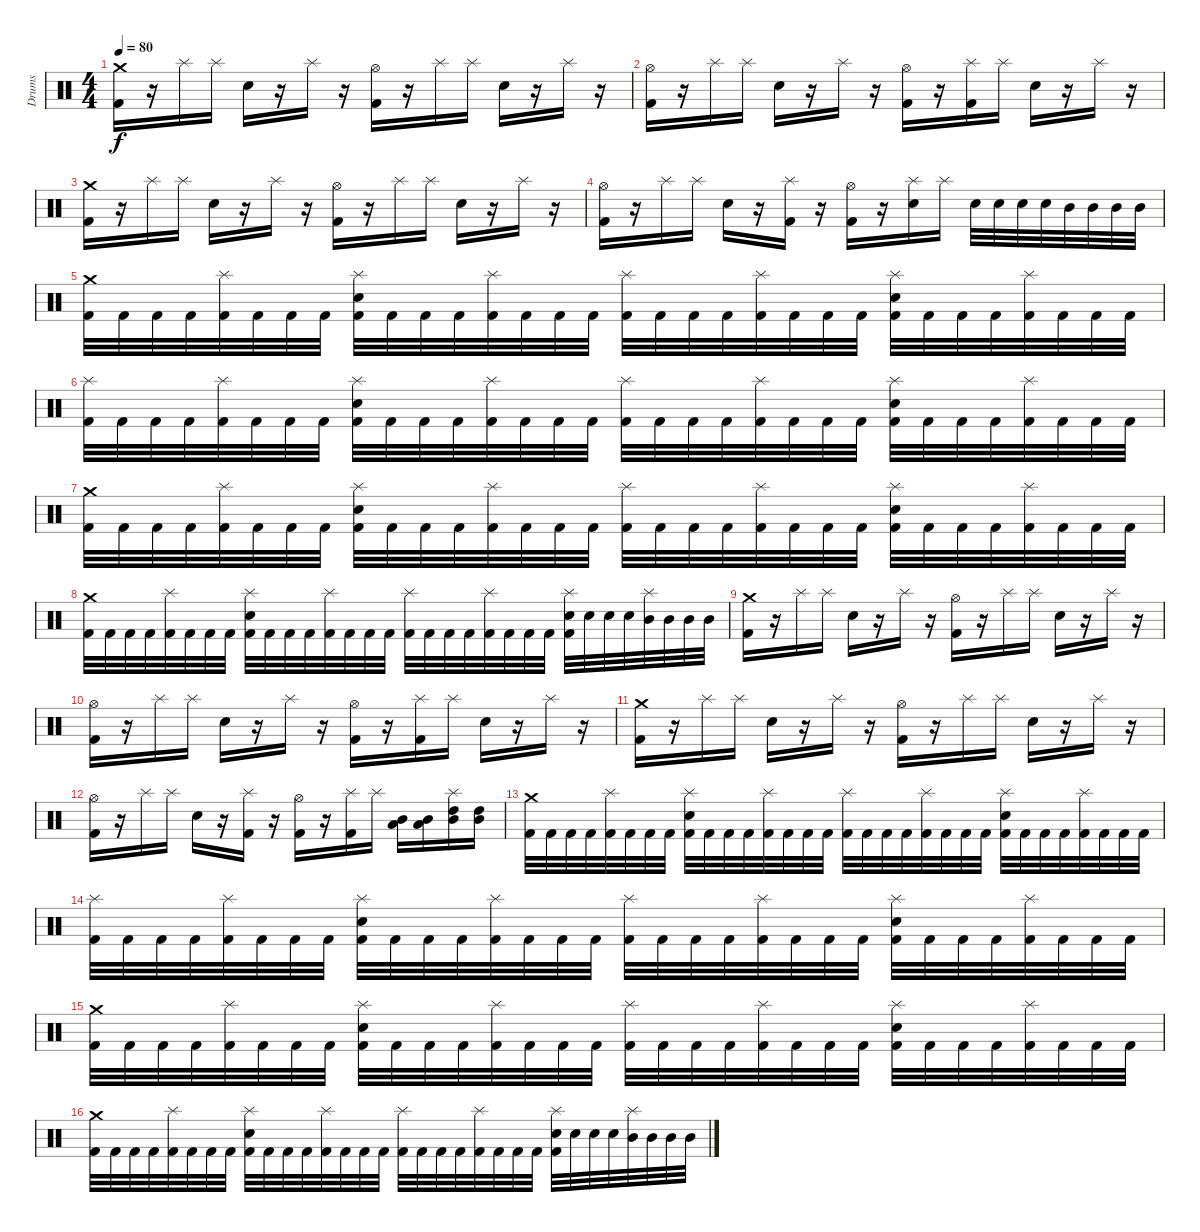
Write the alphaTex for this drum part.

\track ("Drums" "Drums") {instrument percussion}
\staff {score}
\articulation defaults
\ts (4 4)
\tempo 80
\clef neutral
\ks c
("Crash medium (hit)" "Kick (hit) 2").16{dy f} r.16 "Splash (hit)".16 "Splash (hit)".16 "Snare (hit) 2".16 r.16 "Splash (hit)".16 r.16 ("Hi-Hat (open)" "Kick (hit) 2").16 r.16 "Splash (hit)".16 "Splash (hit)".16 "Snare (hit) 2".16 r.16 "Splash (hit)".16 r.16 |
("Hi-Hat (open)" "Kick (hit) 2").16 r.16 "Splash (hit)".16 "Splash (hit)".16 "Snare (hit) 2".16 r.16 "Splash (hit)".16 r.16 ("Hi-Hat (open)" "Kick (hit) 2").16 r.16 ("Splash (hit)" "Kick (hit) 2").16 "Splash (hit)".16 "Snare (hit) 2".16 r.16 "Splash (hit)".16 r.16 |
("Crash medium (hit)" "Kick (hit) 2").16 r.16 "Splash (hit)".16 "Splash (hit)".16 "Snare (hit) 2".16 r.16 "Splash (hit)".16 r.16 ("Hi-Hat (open)" "Kick (hit) 2").16 r.16 "Splash (hit)".16 "Splash (hit)".16 "Snare (hit) 2".16 r.16 "Splash (hit)".16 r.16 |
("Hi-Hat (open)" "Kick (hit) 2").16 r.16 "Splash (hit)".16 "Splash (hit)".16 "Snare (hit) 2".16 r.16 ("Splash (hit)" "Kick (hit) 2").16 r.16 ("Hi-Hat (open)" "Kick (hit) 2").16 r.16 ("Splash (hit)" "Snare (hit) 2").16 "Splash (hit)".16 "Electric Snare (hit)".32 "Electric Snare (hit)".32 "Electric Snare (hit)".32 "Electric Snare (hit)".32 "Mid Tom (hit)".32 "Mid Tom (hit)".32 "Mid Tom (hit)".32 "Mid Tom (hit)".32 |
("Kick (hit) 2" "Crash medium (hit)").32 "Kick (hit) 2".32 "Kick (hit) 2".32 "Kick (hit) 2".32 ("Kick (hit) 2" "Splash (hit)").32 "Kick (hit) 2".32 "Kick (hit) 2".32 "Kick (hit) 2".32 ("Splash (hit)" "Kick (hit) 2" "Electric Snare (hit)").32 "Kick (hit) 2".32 "Kick (hit) 2".32 "Kick (hit) 2".32 ("Kick (hit) 2" "Splash (hit)").32 "Kick (hit) 2".32 "Kick (hit) 2".32 "Kick (hit) 2".32 ("Splash (hit)" "Kick (hit) 2").32 "Kick (hit) 2".32 "Kick (hit) 2".32 "Kick (hit) 2".32 ("Kick (hit) 2" "Splash (hit)").32 "Kick (hit) 2".32 "Kick (hit) 2".32 "Kick (hit) 2".32 ("Splash (hit)" "Kick (hit) 2" "Electric Snare (hit)").32 "Kick (hit) 2".32 "Kick (hit) 2".32 "Kick (hit) 2".32 ("Kick (hit) 2" "Splash (hit)").32 "Kick (hit) 2".32 "Kick (hit) 2".32 "Kick (hit) 2".32 |
("Kick (hit) 2" "Splash (hit)").32 "Kick (hit) 2".32 "Kick (hit) 2".32 "Kick (hit) 2".32 ("Kick (hit) 2" "Splash (hit)").32 "Kick (hit) 2".32 "Kick (hit) 2".32 "Kick (hit) 2".32 ("Splash (hit)" "Kick (hit) 2" "Electric Snare (hit)").32 "Kick (hit) 2".32 "Kick (hit) 2".32 "Kick (hit) 2".32 ("Kick (hit) 2" "Splash (hit)").32 "Kick (hit) 2".32 "Kick (hit) 2".32 "Kick (hit) 2".32 ("Splash (hit)" "Kick (hit) 2").32 "Kick (hit) 2".32 "Kick (hit) 2".32 "Kick (hit) 2".32 ("Kick (hit) 2" "Splash (hit)").32 "Kick (hit) 2".32 "Kick (hit) 2".32 "Kick (hit) 2".32 ("Splash (hit)" "Kick (hit) 2" "Electric Snare (hit)").32 "Kick (hit) 2".32 "Kick (hit) 2".32 "Kick (hit) 2".32 ("Kick (hit) 2" "Splash (hit)").32 "Kick (hit) 2".32 "Kick (hit) 2".32 "Kick (hit) 2".32 |
("Kick (hit) 2" "Crash medium (hit)").32 "Kick (hit) 2".32 "Kick (hit) 2".32 "Kick (hit) 2".32 ("Kick (hit) 2" "Splash (hit)").32 "Kick (hit) 2".32 "Kick (hit) 2".32 "Kick (hit) 2".32 ("Splash (hit)" "Kick (hit) 2" "Electric Snare (hit)").32 "Kick (hit) 2".32 "Kick (hit) 2".32 "Kick (hit) 2".32 ("Kick (hit) 2" "Splash (hit)").32 "Kick (hit) 2".32 "Kick (hit) 2".32 "Kick (hit) 2".32 ("Splash (hit)" "Kick (hit) 2").32 "Kick (hit) 2".32 "Kick (hit) 2".32 "Kick (hit) 2".32 ("Kick (hit) 2" "Splash (hit)").32 "Kick (hit) 2".32 "Kick (hit) 2".32 "Kick (hit) 2".32 ("Splash (hit)" "Kick (hit) 2" "Electric Snare (hit)").32 "Kick (hit) 2".32 "Kick (hit) 2".32 "Kick (hit) 2".32 ("Kick (hit) 2" "Splash (hit)").32 "Kick (hit) 2".32 "Kick (hit) 2".32 "Kick (hit) 2".32 |
("Kick (hit) 2" "Crash medium (hit)").32 "Kick (hit) 2".32 "Kick (hit) 2".32 "Kick (hit) 2".32 ("Kick (hit) 2" "Splash (hit)").32 "Kick (hit) 2".32 "Kick (hit) 2".32 "Kick (hit) 2".32 ("Splash (hit)" "Kick (hit) 2" "Electric Snare (hit)").32 "Kick (hit) 2".32 "Kick (hit) 2".32 "Kick (hit) 2".32 ("Kick (hit) 2" "Splash (hit)").32 "Kick (hit) 2".32 "Kick (hit) 2".32 "Kick (hit) 2".32 ("Splash (hit)" "Kick (hit) 2").32 "Kick (hit) 2".32 "Kick (hit) 2".32 "Kick (hit) 2".32 ("Kick (hit) 2" "Splash (hit)").32 "Kick (hit) 2".32 "Kick (hit) 2".32 "Kick (hit) 2".32 ("Splash (hit)" "Kick (hit) 2" "Electric Snare (hit)").32 "Electric Snare (hit)".32 "Electric Snare (hit)".32 "Electric Snare (hit)".32 ("Mid Tom (hit)" "Splash (hit)").32 "Mid Tom (hit)".32 "Mid Tom (hit)".32 "Mid Tom (hit)".32 |
("Crash medium (hit)" "Kick (hit) 2").16 r.16 "Splash (hit)".16 "Splash (hit)".16 "Snare (hit) 2".16 r.16 "Splash (hit)".16 r.16 ("Hi-Hat (open)" "Kick (hit) 2").16 r.16 "Splash (hit)".16 "Splash (hit)".16 "Snare (hit) 2".16 r.16 "Splash (hit)".16 r.16 |
("Hi-Hat (open)" "Kick (hit) 2").16 r.16 "Splash (hit)".16 "Splash (hit)".16 "Snare (hit) 2".16 r.16 "Splash (hit)".16 r.16 ("Hi-Hat (open)" "Kick (hit) 2").16 r.16 ("Splash (hit)" "Kick (hit) 2").16 "Splash (hit)".16 "Snare (hit) 2".16 r.16 "Splash (hit)".16 r.16 |
("Crash medium (hit)" "Kick (hit) 2").16 r.16 "Splash (hit)".16 "Splash (hit)".16 "Snare (hit) 2".16 r.16 "Splash (hit)".16 r.16 ("Hi-Hat (open)" "Kick (hit) 2").16 r.16 "Splash (hit)".16 "Splash (hit)".16 "Snare (hit) 2".16 r.16 "Splash (hit)".16 r.16 |
("Hi-Hat (open)" "Kick (hit) 2").16 r.16 "Splash (hit)".16 "Splash (hit)".16 "Snare (hit) 2".16 r.16 ("Splash (hit)" "Kick (hit) 2").16 r.16 ("Hi-Hat (open)" "Kick (hit) 2").16 r.16 ("Splash (hit)" "Kick (hit) 2").16 "Splash (hit)".16 ("Low Tom (hit)" "Mid Tom (hit)").16 ("Low Tom (hit)" "Mid Tom (hit)").16 ("Mid Tom (hit)" "High Tom (hit)" "Splash (hit)").16 ("Mid Tom (hit)" "High Tom (hit)").16 |
("Kick (hit) 2" "Crash medium (hit)").32 "Kick (hit) 2".32 "Kick (hit) 2".32 "Kick (hit) 2".32 ("Kick (hit) 2" "Splash (hit)").32 "Kick (hit) 2".32 "Kick (hit) 2".32 "Kick (hit) 2".32 ("Splash (hit)" "Kick (hit) 2" "Electric Snare (hit)").32 "Kick (hit) 2".32 "Kick (hit) 2".32 "Kick (hit) 2".32 ("Kick (hit) 2" "Splash (hit)").32 "Kick (hit) 2".32 "Kick (hit) 2".32 "Kick (hit) 2".32 ("Splash (hit)" "Kick (hit) 2").32 "Kick (hit) 2".32 "Kick (hit) 2".32 "Kick (hit) 2".32 ("Kick (hit) 2" "Splash (hit)").32 "Kick (hit) 2".32 "Kick (hit) 2".32 "Kick (hit) 2".32 ("Splash (hit)" "Kick (hit) 2" "Electric Snare (hit)").32 "Kick (hit) 2".32 "Kick (hit) 2".32 "Kick (hit) 2".32 ("Kick (hit) 2" "Splash (hit)").32 "Kick (hit) 2".32 "Kick (hit) 2".32 "Kick (hit) 2".32 |
("Kick (hit) 2" "Splash (hit)").32 "Kick (hit) 2".32 "Kick (hit) 2".32 "Kick (hit) 2".32 ("Kick (hit) 2" "Splash (hit)").32 "Kick (hit) 2".32 "Kick (hit) 2".32 "Kick (hit) 2".32 ("Splash (hit)" "Kick (hit) 2" "Electric Snare (hit)").32 "Kick (hit) 2".32 "Kick (hit) 2".32 "Kick (hit) 2".32 ("Kick (hit) 2" "Splash (hit)").32 "Kick (hit) 2".32 "Kick (hit) 2".32 "Kick (hit) 2".32 ("Splash (hit)" "Kick (hit) 2").32 "Kick (hit) 2".32 "Kick (hit) 2".32 "Kick (hit) 2".32 ("Kick (hit) 2" "Splash (hit)").32 "Kick (hit) 2".32 "Kick (hit) 2".32 "Kick (hit) 2".32 ("Splash (hit)" "Kick (hit) 2" "Electric Snare (hit)").32 "Kick (hit) 2".32 "Kick (hit) 2".32 "Kick (hit) 2".32 ("Kick (hit) 2" "Splash (hit)").32 "Kick (hit) 2".32 "Kick (hit) 2".32 "Kick (hit) 2".32 |
("Kick (hit) 2" "Crash medium (hit)").32 "Kick (hit) 2".32 "Kick (hit) 2".32 "Kick (hit) 2".32 ("Kick (hit) 2" "Splash (hit)").32 "Kick (hit) 2".32 "Kick (hit) 2".32 "Kick (hit) 2".32 ("Splash (hit)" "Kick (hit) 2" "Electric Snare (hit)").32 "Kick (hit) 2".32 "Kick (hit) 2".32 "Kick (hit) 2".32 ("Kick (hit) 2" "Splash (hit)").32 "Kick (hit) 2".32 "Kick (hit) 2".32 "Kick (hit) 2".32 ("Splash (hit)" "Kick (hit) 2").32 "Kick (hit) 2".32 "Kick (hit) 2".32 "Kick (hit) 2".32 ("Kick (hit) 2" "Splash (hit)").32 "Kick (hit) 2".32 "Kick (hit) 2".32 "Kick (hit) 2".32 ("Splash (hit)" "Kick (hit) 2" "Electric Snare (hit)").32 "Kick (hit) 2".32 "Kick (hit) 2".32 "Kick (hit) 2".32 ("Kick (hit) 2" "Splash (hit)").32 "Kick (hit) 2".32 "Kick (hit) 2".32 "Kick (hit) 2".32 |
("Kick (hit) 2" "Crash medium (hit)").32 "Kick (hit) 2".32 "Kick (hit) 2".32 "Kick (hit) 2".32 ("Kick (hit) 2" "Splash (hit)").32 "Kick (hit) 2".32 "Kick (hit) 2".32 "Kick (hit) 2".32 ("Splash (hit)" "Kick (hit) 2" "Electric Snare (hit)").32 "Kick (hit) 2".32 "Kick (hit) 2".32 "Kick (hit) 2".32 ("Kick (hit) 2" "Splash (hit)").32 "Kick (hit) 2".32 "Kick (hit) 2".32 "Kick (hit) 2".32 ("Splash (hit)" "Kick (hit) 2").32 "Kick (hit) 2".32 "Kick (hit) 2".32 "Kick (hit) 2".32 ("Kick (hit) 2" "Splash (hit)").32 "Kick (hit) 2".32 "Kick (hit) 2".32 "Kick (hit) 2".32 ("Splash (hit)" "Kick (hit) 2" "Electric Snare (hit)").32 "Electric Snare (hit)".32 "Electric Snare (hit)".32 "Electric Snare (hit)".32 ("Mid Tom (hit)" "Splash (hit)").32 "Mid Tom (hit)".32 "Mid Tom (hit)".32 "Mid Tom (hit)".32
